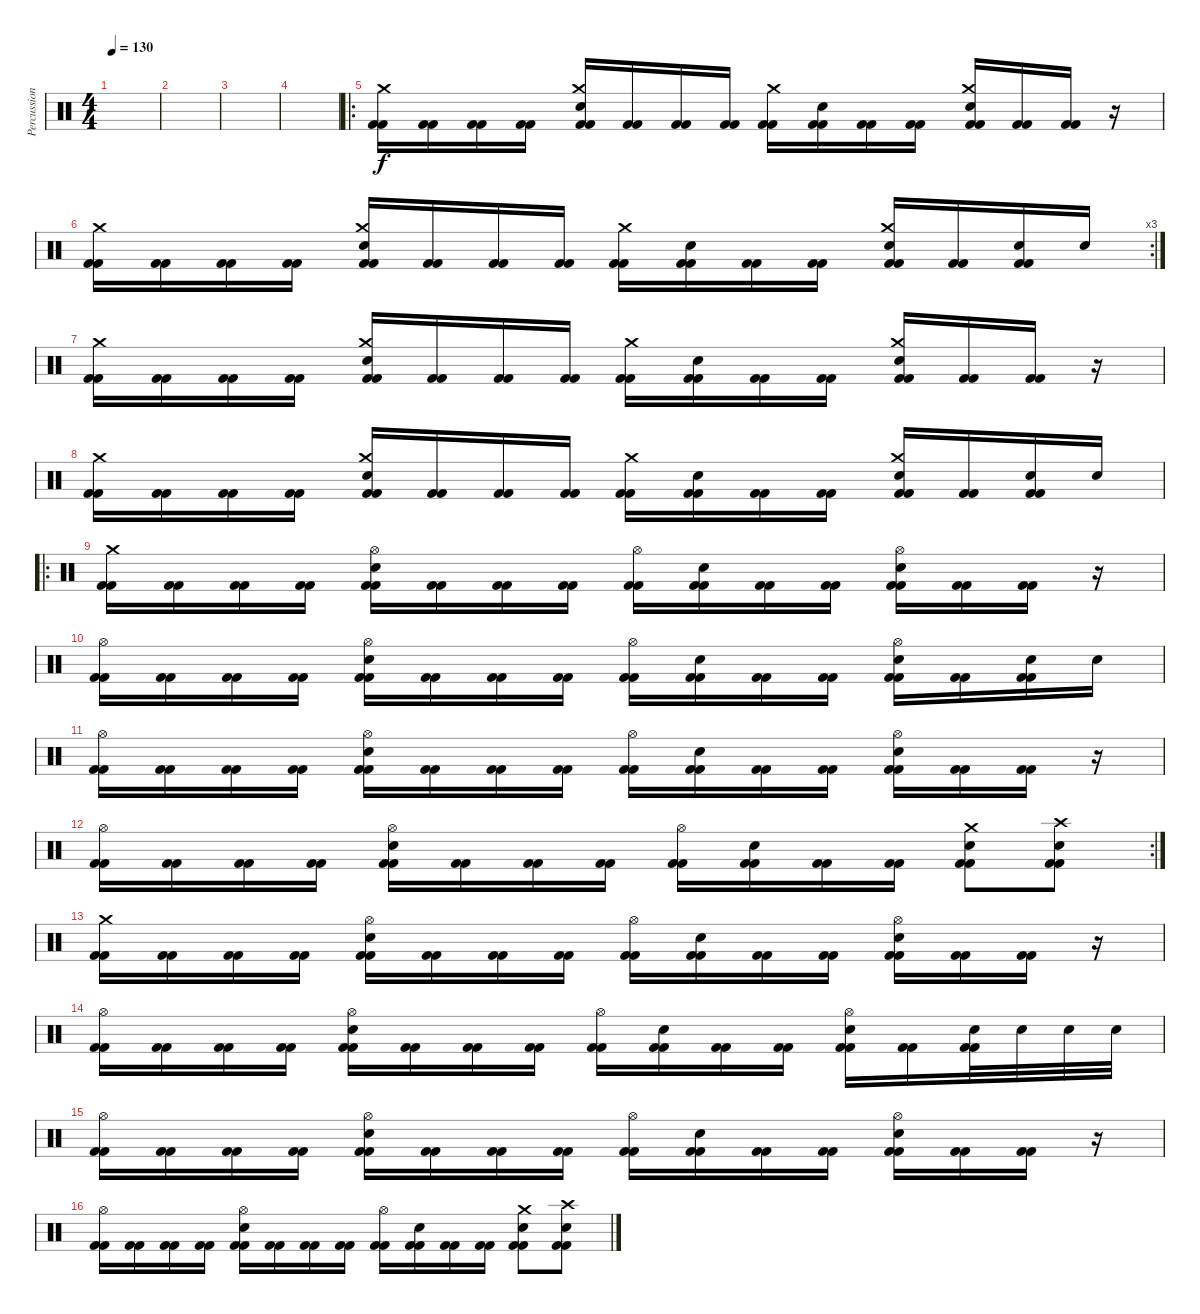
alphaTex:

\track ("Percussion" "Percussion") {instrument percussion}
\staff {score}
\articulation defaults
\ts (4 4)
\tempo 130
\clef neutral
\ks c
|
|
|
|
\ro
("Kick (hit) 2" "Kick (hit) 2" "Crash medium (hit)").16 ("Kick (hit) 2" "Kick (hit) 2").16 ("Kick (hit) 2" "Kick (hit) 2").16 ("Kick (hit) 2" "Kick (hit) 2").16 ("Kick (hit) 2" "Kick (hit) 2" "Crash medium (hit)" "Electric Snare (hit)").16 ("Kick (hit) 2" "Kick (hit) 2").16 ("Kick (hit) 2" "Kick (hit) 2").16 ("Kick (hit) 2" "Kick (hit) 2").16 ("Kick (hit) 2" "Kick (hit) 2" "Crash medium (hit)").16 ("Kick (hit) 2" "Kick (hit) 2" "Electric Snare (hit)").16 ("Kick (hit) 2" "Kick (hit) 2").16 ("Kick (hit) 2" "Kick (hit) 2").16 ("Kick (hit) 2" "Kick (hit) 2" "Crash medium (hit)" "Electric Snare (hit)").16 ("Kick (hit) 2" "Kick (hit) 2").16 ("Kick (hit) 2" "Kick (hit) 2").16 r.16 |
\rc 3
("Kick (hit) 2" "Kick (hit) 2" "Crash medium (hit)").16 ("Kick (hit) 2" "Kick (hit) 2").16 ("Kick (hit) 2" "Kick (hit) 2").16 ("Kick (hit) 2" "Kick (hit) 2").16 ("Kick (hit) 2" "Kick (hit) 2" "Crash medium (hit)" "Electric Snare (hit)").16 ("Kick (hit) 2" "Kick (hit) 2").16 ("Kick (hit) 2" "Kick (hit) 2").16 ("Kick (hit) 2" "Kick (hit) 2").16 ("Kick (hit) 2" "Kick (hit) 2" "Crash medium (hit)").16 ("Kick (hit) 2" "Kick (hit) 2" "Electric Snare (hit)").16 ("Kick (hit) 2" "Kick (hit) 2").16 ("Kick (hit) 2" "Kick (hit) 2").16 ("Kick (hit) 2" "Kick (hit) 2" "Crash medium (hit)" "Electric Snare (hit)").16 ("Kick (hit) 2" "Kick (hit) 2").16 ("Kick (hit) 2" "Kick (hit) 2" "Electric Snare (hit)").16 "Electric Snare (hit)".16 |
("Kick (hit) 2" "Kick (hit) 2" "Crash medium (hit)").16 ("Kick (hit) 2" "Kick (hit) 2").16 ("Kick (hit) 2" "Kick (hit) 2").16 ("Kick (hit) 2" "Kick (hit) 2").16 ("Kick (hit) 2" "Kick (hit) 2" "Crash medium (hit)" "Electric Snare (hit)").16 ("Kick (hit) 2" "Kick (hit) 2").16 ("Kick (hit) 2" "Kick (hit) 2").16 ("Kick (hit) 2" "Kick (hit) 2").16 ("Kick (hit) 2" "Kick (hit) 2" "Crash medium (hit)").16 ("Kick (hit) 2" "Kick (hit) 2" "Electric Snare (hit)").16 ("Kick (hit) 2" "Kick (hit) 2").16 ("Kick (hit) 2" "Kick (hit) 2").16 ("Kick (hit) 2" "Kick (hit) 2" "Crash medium (hit)" "Electric Snare (hit)").16 ("Kick (hit) 2" "Kick (hit) 2").16 ("Kick (hit) 2" "Kick (hit) 2").16 r.16 |
("Kick (hit) 2" "Kick (hit) 2" "Crash medium (hit)").16 ("Kick (hit) 2" "Kick (hit) 2").16 ("Kick (hit) 2" "Kick (hit) 2").16 ("Kick (hit) 2" "Kick (hit) 2").16 ("Kick (hit) 2" "Kick (hit) 2" "Crash medium (hit)" "Electric Snare (hit)").16 ("Kick (hit) 2" "Kick (hit) 2").16 ("Kick (hit) 2" "Kick (hit) 2").16 ("Kick (hit) 2" "Kick (hit) 2").16 ("Kick (hit) 2" "Kick (hit) 2" "Crash medium (hit)").16 ("Kick (hit) 2" "Kick (hit) 2" "Electric Snare (hit)").16 ("Kick (hit) 2" "Kick (hit) 2").16 ("Kick (hit) 2" "Kick (hit) 2").16 ("Kick (hit) 2" "Kick (hit) 2" "Crash medium (hit)" "Electric Snare (hit)").16 ("Kick (hit) 2" "Kick (hit) 2").16 ("Kick (hit) 2" "Kick (hit) 2" "Electric Snare (hit)").16 "Electric Snare (hit)".16 |
\ro
("Kick (hit) 2" "Kick (hit) 2" "Crash medium (hit)").16 ("Kick (hit) 2" "Kick (hit) 2").16 ("Kick (hit) 2" "Kick (hit) 2").16 ("Kick (hit) 2" "Kick (hit) 2").16 ("Kick (hit) 2" "Kick (hit) 2" "Hi-Hat (open)" "Electric Snare (hit)").16 ("Kick (hit) 2" "Kick (hit) 2").16 ("Kick (hit) 2" "Kick (hit) 2").16 ("Kick (hit) 2" "Kick (hit) 2").16 ("Kick (hit) 2" "Kick (hit) 2" "Hi-Hat (open)").16 ("Kick (hit) 2" "Kick (hit) 2" "Electric Snare (hit)").16 ("Kick (hit) 2" "Kick (hit) 2").16 ("Kick (hit) 2" "Kick (hit) 2").16 ("Kick (hit) 2" "Kick (hit) 2" "Hi-Hat (open)" "Electric Snare (hit)").16 ("Kick (hit) 2" "Kick (hit) 2").16 ("Kick (hit) 2" "Kick (hit) 2").16 r.16 |
("Kick (hit) 2" "Kick (hit) 2" "Hi-Hat (open)").16 ("Kick (hit) 2" "Kick (hit) 2").16 ("Kick (hit) 2" "Kick (hit) 2").16 ("Kick (hit) 2" "Kick (hit) 2").16 ("Kick (hit) 2" "Kick (hit) 2" "Hi-Hat (open)" "Electric Snare (hit)").16 ("Kick (hit) 2" "Kick (hit) 2").16 ("Kick (hit) 2" "Kick (hit) 2").16 ("Kick (hit) 2" "Kick (hit) 2").16 ("Kick (hit) 2" "Kick (hit) 2" "Hi-Hat (open)").16 ("Kick (hit) 2" "Kick (hit) 2" "Electric Snare (hit)").16 ("Kick (hit) 2" "Kick (hit) 2").16 ("Kick (hit) 2" "Kick (hit) 2").16 ("Kick (hit) 2" "Kick (hit) 2" "Hi-Hat (open)" "Electric Snare (hit)").16 ("Kick (hit) 2" "Kick (hit) 2").16 ("Kick (hit) 2" "Kick (hit) 2" "Electric Snare (hit)").16 "Electric Snare (hit)".16 |
("Kick (hit) 2" "Kick (hit) 2" "Hi-Hat (open)").16 ("Kick (hit) 2" "Kick (hit) 2").16 ("Kick (hit) 2" "Kick (hit) 2").16 ("Kick (hit) 2" "Kick (hit) 2").16 ("Kick (hit) 2" "Kick (hit) 2" "Hi-Hat (open)" "Electric Snare (hit)").16 ("Kick (hit) 2" "Kick (hit) 2").16 ("Kick (hit) 2" "Kick (hit) 2").16 ("Kick (hit) 2" "Kick (hit) 2").16 ("Kick (hit) 2" "Kick (hit) 2" "Hi-Hat (open)").16 ("Kick (hit) 2" "Kick (hit) 2" "Electric Snare (hit)").16 ("Kick (hit) 2" "Kick (hit) 2").16 ("Kick (hit) 2" "Kick (hit) 2").16 ("Kick (hit) 2" "Kick (hit) 2" "Hi-Hat (open)" "Electric Snare (hit)").16 ("Kick (hit) 2" "Kick (hit) 2").16 ("Kick (hit) 2" "Kick (hit) 2").16 r.16 |
\rc 2
("Kick (hit) 2" "Kick (hit) 2" "Hi-Hat (open)").16 ("Kick (hit) 2" "Kick (hit) 2").16 ("Kick (hit) 2" "Kick (hit) 2").16 ("Kick (hit) 2" "Kick (hit) 2").16 ("Kick (hit) 2" "Kick (hit) 2" "Hi-Hat (open)" "Electric Snare (hit)").16 ("Kick (hit) 2" "Kick (hit) 2").16 ("Kick (hit) 2" "Kick (hit) 2").16 ("Kick (hit) 2" "Kick (hit) 2").16 ("Kick (hit) 2" "Kick (hit) 2" "Hi-Hat (open)").16 ("Kick (hit) 2" "Kick (hit) 2" "Electric Snare (hit)").16 ("Kick (hit) 2" "Kick (hit) 2").16 ("Kick (hit) 2" "Kick (hit) 2").16 ("Kick (hit) 2" "Kick (hit) 2" "Crash medium (hit)" "Electric Snare (hit)").8 ("Kick (hit) 2" "Kick (hit) 2" "Crash high (hit)" "Electric Snare (hit)").8 |
("Kick (hit) 2" "Kick (hit) 2" "Crash medium (hit)").16 ("Kick (hit) 2" "Kick (hit) 2").16 ("Kick (hit) 2" "Kick (hit) 2").16 ("Kick (hit) 2" "Kick (hit) 2").16 ("Kick (hit) 2" "Kick (hit) 2" "Hi-Hat (open)" "Electric Snare (hit)").16 ("Kick (hit) 2" "Kick (hit) 2").16 ("Kick (hit) 2" "Kick (hit) 2").16 ("Kick (hit) 2" "Kick (hit) 2").16 ("Kick (hit) 2" "Kick (hit) 2" "Hi-Hat (open)").16 ("Kick (hit) 2" "Kick (hit) 2" "Electric Snare (hit)").16 ("Kick (hit) 2" "Kick (hit) 2").16 ("Kick (hit) 2" "Kick (hit) 2").16 ("Kick (hit) 2" "Kick (hit) 2" "Hi-Hat (open)" "Electric Snare (hit)").16 ("Kick (hit) 2" "Kick (hit) 2").16 ("Kick (hit) 2" "Kick (hit) 2").16 r.16 |
("Kick (hit) 2" "Kick (hit) 2" "Hi-Hat (open)").16 ("Kick (hit) 2" "Kick (hit) 2").16 ("Kick (hit) 2" "Kick (hit) 2").16 ("Kick (hit) 2" "Kick (hit) 2").16 ("Kick (hit) 2" "Kick (hit) 2" "Hi-Hat (open)" "Electric Snare (hit)").16 ("Kick (hit) 2" "Kick (hit) 2").16 ("Kick (hit) 2" "Kick (hit) 2").16 ("Kick (hit) 2" "Kick (hit) 2").16 ("Kick (hit) 2" "Kick (hit) 2" "Hi-Hat (open)").16 ("Kick (hit) 2" "Kick (hit) 2" "Electric Snare (hit)").16 ("Kick (hit) 2" "Kick (hit) 2").16 ("Kick (hit) 2" "Kick (hit) 2").16 ("Kick (hit) 2" "Kick (hit) 2" "Hi-Hat (open)" "Electric Snare (hit)").16 ("Kick (hit) 2" "Kick (hit) 2").16 ("Kick (hit) 2" "Kick (hit) 2" "Electric Snare (hit)").32 "Electric Snare (hit)".32 "Electric Snare (hit)".32 "Electric Snare (hit)".32 |
("Kick (hit) 2" "Kick (hit) 2" "Hi-Hat (open)").16 ("Kick (hit) 2" "Kick (hit) 2").16 ("Kick (hit) 2" "Kick (hit) 2").16 ("Kick (hit) 2" "Kick (hit) 2").16 ("Kick (hit) 2" "Kick (hit) 2" "Hi-Hat (open)" "Electric Snare (hit)").16 ("Kick (hit) 2" "Kick (hit) 2").16 ("Kick (hit) 2" "Kick (hit) 2").16 ("Kick (hit) 2" "Kick (hit) 2").16 ("Kick (hit) 2" "Kick (hit) 2" "Hi-Hat (open)").16 ("Kick (hit) 2" "Kick (hit) 2" "Electric Snare (hit)").16 ("Kick (hit) 2" "Kick (hit) 2").16 ("Kick (hit) 2" "Kick (hit) 2").16 ("Kick (hit) 2" "Kick (hit) 2" "Hi-Hat (open)" "Electric Snare (hit)").16 ("Kick (hit) 2" "Kick (hit) 2").16 ("Kick (hit) 2" "Kick (hit) 2").16 r.16 |
("Kick (hit) 2" "Kick (hit) 2" "Hi-Hat (open)").16 ("Kick (hit) 2" "Kick (hit) 2").16 ("Kick (hit) 2" "Kick (hit) 2").16 ("Kick (hit) 2" "Kick (hit) 2").16 ("Kick (hit) 2" "Kick (hit) 2" "Hi-Hat (open)" "Electric Snare (hit)").16 ("Kick (hit) 2" "Kick (hit) 2").16 ("Kick (hit) 2" "Kick (hit) 2").16 ("Kick (hit) 2" "Kick (hit) 2").16 ("Kick (hit) 2" "Kick (hit) 2" "Hi-Hat (open)").16 ("Kick (hit) 2" "Kick (hit) 2" "Electric Snare (hit)").16 ("Kick (hit) 2" "Kick (hit) 2").16 ("Kick (hit) 2" "Kick (hit) 2").16 ("Kick (hit) 2" "Kick (hit) 2" "Crash medium (hit)" "Electric Snare (hit)").8 ("Kick (hit) 2" "Kick (hit) 2" "Crash high (hit)" "Electric Snare (hit)").8
